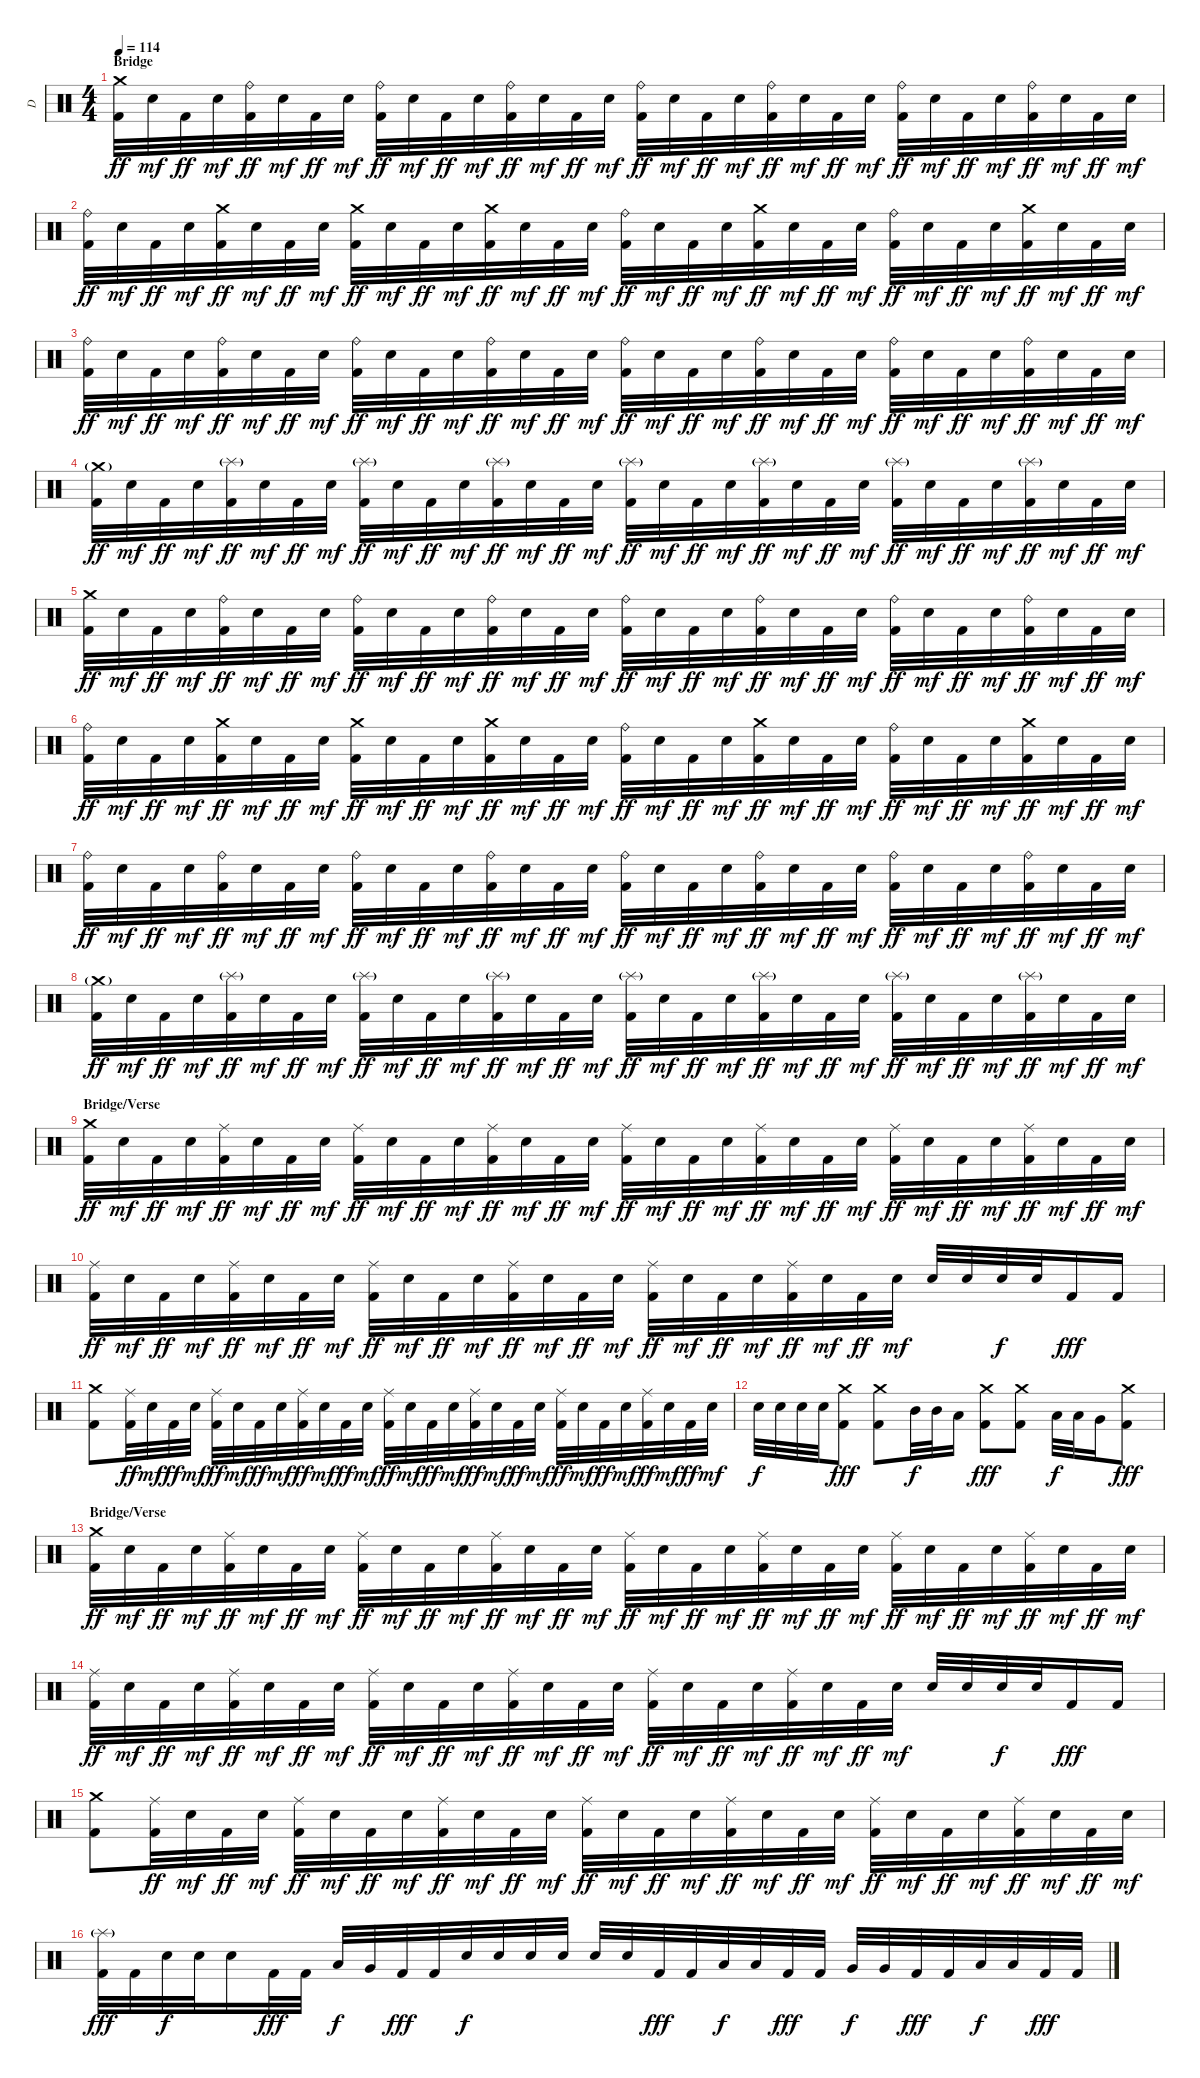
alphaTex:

\track ("D" "D") {instrument percussion}
\staff {score}
\articulation defaults
\ts (4 4)
\section ("" "Bridge")
\tempo 114
\clef neutral
\ks c
("Crash medium (hit)" "Kick (hit) 2").32{dy ff} "Electric Snare (hit)".32{dy mf} "Kick (hit) 2".32{dy ff} "Electric Snare (hit)".32{dy mf} ("Ride (bell)" "Kick (hit) 2").32{dy ff} "Electric Snare (hit)".32{dy mf} "Kick (hit) 2".32{dy ff} "Electric Snare (hit)".32{dy mf} ("Ride (bell)" "Kick (hit) 2").32{dy ff} "Electric Snare (hit)".32{dy mf} "Kick (hit) 2".32{dy ff} "Electric Snare (hit)".32{dy mf} ("Ride (bell)" "Kick (hit) 2").32{dy ff} "Electric Snare (hit)".32{dy mf} "Kick (hit) 2".32{dy ff} "Electric Snare (hit)".32{dy mf} ("Ride (bell)" "Kick (hit) 2").32{dy ff} "Electric Snare (hit)".32{dy mf} "Kick (hit) 2".32{dy ff} "Electric Snare (hit)".32{dy mf} ("Ride (bell)" "Kick (hit) 2").32{dy ff} "Electric Snare (hit)".32{dy mf} "Kick (hit) 2".32{dy ff} "Electric Snare (hit)".32{dy mf} ("Ride (bell)" "Kick (hit) 2").32{dy ff} "Electric Snare (hit)".32{dy mf} "Kick (hit) 2".32{dy ff} "Electric Snare (hit)".32{dy mf} ("Ride (bell)" "Kick (hit) 2").32{dy ff} "Electric Snare (hit)".32{dy mf} "Kick (hit) 2".32{dy ff} "Electric Snare (hit)".32{dy mf} |
("Ride (bell)" "Kick (hit) 2").32{dy ff} "Electric Snare (hit)".32{dy mf} "Kick (hit) 2".32{dy ff} "Electric Snare (hit)".32{dy mf} ("Crash medium (hit)" "Kick (hit) 2").32{dy ff} "Electric Snare (hit)".32{dy mf} "Kick (hit) 2".32{dy ff} "Electric Snare (hit)".32{dy mf} ("Crash medium (hit)" "Kick (hit) 2").32{dy ff} "Electric Snare (hit)".32{dy mf} "Kick (hit) 2".32{dy ff} "Electric Snare (hit)".32{dy mf} ("Crash medium (hit)" "Kick (hit) 2").32{dy ff} "Electric Snare (hit)".32{dy mf} "Kick (hit) 2".32{dy ff} "Electric Snare (hit)".32{dy mf} ("Ride (bell)" "Kick (hit) 2").32{dy ff} "Electric Snare (hit)".32{dy mf} "Kick (hit) 2".32{dy ff} "Electric Snare (hit)".32{dy mf} ("Crash medium (hit)" "Kick (hit) 2").32{dy ff} "Electric Snare (hit)".32{dy mf} "Kick (hit) 2".32{dy ff} "Electric Snare (hit)".32{dy mf} ("Ride (bell)" "Kick (hit) 2").32{dy ff} "Electric Snare (hit)".32{dy mf} "Kick (hit) 2".32{dy ff} "Electric Snare (hit)".32{dy mf} ("Crash medium (hit)" "Kick (hit) 2").32{dy ff} "Electric Snare (hit)".32{dy mf} "Kick (hit) 2".32{dy ff} "Electric Snare (hit)".32{dy mf} |
("Ride (bell)" "Kick (hit) 2").32{dy ff} "Electric Snare (hit)".32{dy mf} "Kick (hit) 2".32{dy ff} "Electric Snare (hit)".32{dy mf} ("Ride (bell)" "Kick (hit) 2").32{dy ff} "Electric Snare (hit)".32{dy mf} "Kick (hit) 2".32{dy ff} "Electric Snare (hit)".32{dy mf} ("Ride (bell)" "Kick (hit) 2").32{dy ff} "Electric Snare (hit)".32{dy mf} "Kick (hit) 2".32{dy ff} "Electric Snare (hit)".32{dy mf} ("Ride (bell)" "Kick (hit) 2").32{dy ff} "Electric Snare (hit)".32{dy mf} "Kick (hit) 2".32{dy ff} "Electric Snare (hit)".32{dy mf} ("Ride (bell)" "Kick (hit) 2").32{dy ff} "Electric Snare (hit)".32{dy mf} "Kick (hit) 2".32{dy ff} "Electric Snare (hit)".32{dy mf} ("Ride (bell)" "Kick (hit) 2").32{dy ff} "Electric Snare (hit)".32{dy mf} "Kick (hit) 2".32{dy ff} "Electric Snare (hit)".32{dy mf} ("Ride (bell)" "Kick (hit) 2").32{dy ff} "Electric Snare (hit)".32{dy mf} "Kick (hit) 2".32{dy ff} "Electric Snare (hit)".32{dy mf} ("Ride (bell)" "Kick (hit) 2").32{dy ff} "Electric Snare (hit)".32{dy mf} "Kick (hit) 2".32{dy ff} "Electric Snare (hit)".32{dy mf} |
("Crash medium (hit)"{g} "Kick (hit) 2").32{dy ff} "Electric Snare (hit)".32{dy mf} "Kick (hit) 2".32{dy ff} "Electric Snare (hit)".32{dy mf} ("Splash (hit)"{g} "Kick (hit) 2").32{dy ff} "Electric Snare (hit)".32{dy mf} "Kick (hit) 2".32{dy ff} "Electric Snare (hit)".32{dy mf} ("Splash (hit)"{g} "Kick (hit) 2").32{dy ff} "Electric Snare (hit)".32{dy mf} "Kick (hit) 2".32{dy ff} "Electric Snare (hit)".32{dy mf} ("Splash (hit)"{g} "Kick (hit) 2").32{dy ff} "Electric Snare (hit)".32{dy mf} "Kick (hit) 2".32{dy ff} "Electric Snare (hit)".32{dy mf} ("Splash (hit)"{g} "Kick (hit) 2").32{dy ff} "Electric Snare (hit)".32{dy mf} "Kick (hit) 2".32{dy ff} "Electric Snare (hit)".32{dy mf} ("Splash (hit)"{g} "Kick (hit) 2").32{dy ff} "Electric Snare (hit)".32{dy mf} "Kick (hit) 2".32{dy ff} "Electric Snare (hit)".32{dy mf} ("Splash (hit)"{g} "Kick (hit) 2").32{dy ff} "Electric Snare (hit)".32{dy mf} "Kick (hit) 2".32{dy ff} "Electric Snare (hit)".32{dy mf} ("Splash (hit)"{g} "Kick (hit) 2").32{dy ff} "Electric Snare (hit)".32{dy mf} "Kick (hit) 2".32{dy ff} "Electric Snare (hit)".32{dy mf} |
("Crash medium (hit)" "Kick (hit) 2").32{dy ff} "Electric Snare (hit)".32{dy mf} "Kick (hit) 2".32{dy ff} "Electric Snare (hit)".32{dy mf} ("Ride (bell)" "Kick (hit) 2").32{dy ff} "Electric Snare (hit)".32{dy mf} "Kick (hit) 2".32{dy ff} "Electric Snare (hit)".32{dy mf} ("Ride (bell)" "Kick (hit) 2").32{dy ff} "Electric Snare (hit)".32{dy mf} "Kick (hit) 2".32{dy ff} "Electric Snare (hit)".32{dy mf} ("Ride (bell)" "Kick (hit) 2").32{dy ff} "Electric Snare (hit)".32{dy mf} "Kick (hit) 2".32{dy ff} "Electric Snare (hit)".32{dy mf} ("Ride (bell)" "Kick (hit) 2").32{dy ff} "Electric Snare (hit)".32{dy mf} "Kick (hit) 2".32{dy ff} "Electric Snare (hit)".32{dy mf} ("Ride (bell)" "Kick (hit) 2").32{dy ff} "Electric Snare (hit)".32{dy mf} "Kick (hit) 2".32{dy ff} "Electric Snare (hit)".32{dy mf} ("Ride (bell)" "Kick (hit) 2").32{dy ff} "Electric Snare (hit)".32{dy mf} "Kick (hit) 2".32{dy ff} "Electric Snare (hit)".32{dy mf} ("Ride (bell)" "Kick (hit) 2").32{dy ff} "Electric Snare (hit)".32{dy mf} "Kick (hit) 2".32{dy ff} "Electric Snare (hit)".32{dy mf} |
("Ride (bell)" "Kick (hit) 2").32{dy ff} "Electric Snare (hit)".32{dy mf} "Kick (hit) 2".32{dy ff} "Electric Snare (hit)".32{dy mf} ("Crash medium (hit)" "Kick (hit) 2").32{dy ff} "Electric Snare (hit)".32{dy mf} "Kick (hit) 2".32{dy ff} "Electric Snare (hit)".32{dy mf} ("Crash medium (hit)" "Kick (hit) 2").32{dy ff} "Electric Snare (hit)".32{dy mf} "Kick (hit) 2".32{dy ff} "Electric Snare (hit)".32{dy mf} ("Crash medium (hit)" "Kick (hit) 2").32{dy ff} "Electric Snare (hit)".32{dy mf} "Kick (hit) 2".32{dy ff} "Electric Snare (hit)".32{dy mf} ("Ride (bell)" "Kick (hit) 2").32{dy ff} "Electric Snare (hit)".32{dy mf} "Kick (hit) 2".32{dy ff} "Electric Snare (hit)".32{dy mf} ("Crash medium (hit)" "Kick (hit) 2").32{dy ff} "Electric Snare (hit)".32{dy mf} "Kick (hit) 2".32{dy ff} "Electric Snare (hit)".32{dy mf} ("Ride (bell)" "Kick (hit) 2").32{dy ff} "Electric Snare (hit)".32{dy mf} "Kick (hit) 2".32{dy ff} "Electric Snare (hit)".32{dy mf} ("Crash medium (hit)" "Kick (hit) 2").32{dy ff} "Electric Snare (hit)".32{dy mf} "Kick (hit) 2".32{dy ff} "Electric Snare (hit)".32{dy mf} |
("Ride (bell)" "Kick (hit) 2").32{dy ff} "Electric Snare (hit)".32{dy mf} "Kick (hit) 2".32{dy ff} "Electric Snare (hit)".32{dy mf} ("Ride (bell)" "Kick (hit) 2").32{dy ff} "Electric Snare (hit)".32{dy mf} "Kick (hit) 2".32{dy ff} "Electric Snare (hit)".32{dy mf} ("Ride (bell)" "Kick (hit) 2").32{dy ff} "Electric Snare (hit)".32{dy mf} "Kick (hit) 2".32{dy ff} "Electric Snare (hit)".32{dy mf} ("Ride (bell)" "Kick (hit) 2").32{dy ff} "Electric Snare (hit)".32{dy mf} "Kick (hit) 2".32{dy ff} "Electric Snare (hit)".32{dy mf} ("Ride (bell)" "Kick (hit) 2").32{dy ff} "Electric Snare (hit)".32{dy mf} "Kick (hit) 2".32{dy ff} "Electric Snare (hit)".32{dy mf} ("Ride (bell)" "Kick (hit) 2").32{dy ff} "Electric Snare (hit)".32{dy mf} "Kick (hit) 2".32{dy ff} "Electric Snare (hit)".32{dy mf} ("Ride (bell)" "Kick (hit) 2").32{dy ff} "Electric Snare (hit)".32{dy mf} "Kick (hit) 2".32{dy ff} "Electric Snare (hit)".32{dy mf} ("Ride (bell)" "Kick (hit) 2").32{dy ff} "Electric Snare (hit)".32{dy mf} "Kick (hit) 2".32{dy ff} "Electric Snare (hit)".32{dy mf} |
("Crash medium (hit)"{g} "Kick (hit) 2").32{dy ff} "Electric Snare (hit)".32{dy mf} "Kick (hit) 2".32{dy ff} "Electric Snare (hit)".32{dy mf} ("Splash (hit)"{g} "Kick (hit) 2").32{dy ff} "Electric Snare (hit)".32{dy mf} "Kick (hit) 2".32{dy ff} "Electric Snare (hit)".32{dy mf} ("Splash (hit)"{g} "Kick (hit) 2").32{dy ff} "Electric Snare (hit)".32{dy mf} "Kick (hit) 2".32{dy ff} "Electric Snare (hit)".32{dy mf} ("Splash (hit)"{g} "Kick (hit) 2").32{dy ff} "Electric Snare (hit)".32{dy mf} "Kick (hit) 2".32{dy ff} "Electric Snare (hit)".32{dy mf} ("Splash (hit)"{g} "Kick (hit) 2").32{dy ff} "Electric Snare (hit)".32{dy mf} "Kick (hit) 2".32{dy ff} "Electric Snare (hit)".32{dy mf} ("Splash (hit)"{g} "Kick (hit) 2").32{dy ff} "Electric Snare (hit)".32{dy mf} "Kick (hit) 2".32{dy ff} "Electric Snare (hit)".32{dy mf} ("Splash (hit)"{g} "Kick (hit) 2").32{dy ff} "Electric Snare (hit)".32{dy mf} "Kick (hit) 2".32{dy ff} "Electric Snare (hit)".32{dy mf} ("Splash (hit)"{g} "Kick (hit) 2").32{dy ff} "Electric Snare (hit)".32{dy mf} "Kick (hit) 2".32{dy ff} "Electric Snare (hit)".32{dy mf} |
\section ("" "Bridge/Verse")
("Crash medium (hit)" "Kick (hit) 2").32{dy ff} "Electric Snare (hit)".32{dy mf} "Kick (hit) 2".32{dy ff} "Electric Snare (hit)".32{dy mf} ("Ride (middle)" "Kick (hit) 2").32{dy ff} "Electric Snare (hit)".32{dy mf} "Kick (hit) 2".32{dy ff} "Electric Snare (hit)".32{dy mf} ("Ride (middle)" "Kick (hit) 2").32{dy ff} "Electric Snare (hit)".32{dy mf} "Kick (hit) 2".32{dy ff} "Electric Snare (hit)".32{dy mf} ("Ride (middle)" "Kick (hit) 2").32{dy ff} "Electric Snare (hit)".32{dy mf} "Kick (hit) 2".32{dy ff} "Electric Snare (hit)".32{dy mf} ("Ride (middle)" "Kick (hit) 2").32{dy ff} "Electric Snare (hit)".32{dy mf} "Kick (hit) 2".32{dy ff} "Electric Snare (hit)".32{dy mf} ("Ride (middle)" "Kick (hit) 2").32{dy ff} "Electric Snare (hit)".32{dy mf} "Kick (hit) 2".32{dy ff} "Electric Snare (hit)".32{dy mf} ("Ride (middle)" "Kick (hit) 2").32{dy ff} "Electric Snare (hit)".32{dy mf} "Kick (hit) 2".32{dy ff} "Electric Snare (hit)".32{dy mf} ("Ride (middle)" "Kick (hit) 2").32{dy ff} "Electric Snare (hit)".32{dy mf} "Kick (hit) 2".32{dy ff} "Electric Snare (hit)".32{dy mf} |
("Ride (middle)" "Kick (hit) 2").32{dy ff} "Electric Snare (hit)".32{dy mf} "Kick (hit) 2".32{dy ff} "Electric Snare (hit)".32{dy mf} ("Ride (middle)" "Kick (hit) 2").32{dy ff} "Electric Snare (hit)".32{dy mf} "Kick (hit) 2".32{dy ff} "Electric Snare (hit)".32{dy mf} ("Ride (middle)" "Kick (hit) 2").32{dy ff} "Electric Snare (hit)".32{dy mf} "Kick (hit) 2".32{dy ff} "Electric Snare (hit)".32{dy mf} ("Ride (middle)" "Kick (hit) 2").32{dy ff} "Electric Snare (hit)".32{dy mf} "Kick (hit) 2".32{dy ff} "Electric Snare (hit)".32{dy mf} ("Ride (middle)" "Kick (hit) 2").32{dy ff} "Electric Snare (hit)".32{dy mf} "Kick (hit) 2".32{dy ff} "Electric Snare (hit)".32{dy mf} ("Ride (middle)" "Kick (hit) 2").32{dy ff} "Electric Snare (hit)".32{dy mf} "Kick (hit) 2".32{dy ff} "Electric Snare (hit)".32{dy mf} "Electric Snare (hit)".32 "Electric Snare (hit)".32 "Electric Snare (hit)".32{dy f} "Electric Snare (hit)".32 "Kick (hit) 2".16{dy fff} "Kick (hit) 2".16 |
("Crash medium (hit)" "Kick (hit) 2").8 ("Ride (middle)" "Kick (hit) 2").32{dy ff} "Electric Snare (hit)".32{dy mf} "Kick (hit) 2".32{dy ff} "Electric Snare (hit)".32{dy mf} ("Ride (middle)" "Kick (hit) 2").32{dy ff} "Electric Snare (hit)".32{dy mf} "Kick (hit) 2".32{dy ff} "Electric Snare (hit)".32{dy mf} ("Ride (middle)" "Kick (hit) 2").32{dy ff} "Electric Snare (hit)".32{dy mf} "Kick (hit) 2".32{dy ff} "Electric Snare (hit)".32{dy mf} ("Ride (middle)" "Kick (hit) 2").32{dy ff} "Electric Snare (hit)".32{dy mf} "Kick (hit) 2".32{dy ff} "Electric Snare (hit)".32{dy mf} ("Ride (middle)" "Kick (hit) 2").32{dy ff} "Electric Snare (hit)".32{dy mf} "Kick (hit) 2".32{dy ff} "Electric Snare (hit)".32{dy mf} ("Ride (middle)" "Kick (hit) 2").32{dy ff} "Electric Snare (hit)".32{dy mf} "Kick (hit) 2".32{dy ff} "Electric Snare (hit)".32{dy mf} ("Ride (middle)" "Kick (hit) 2").32{dy ff} "Electric Snare (hit)".32{dy mf} "Kick (hit) 2".32{dy ff} "Electric Snare (hit)".32{dy mf} |
"Electric Snare (hit)".32{dy f} "Electric Snare (hit)".32 "Electric Snare (hit)".32 "Electric Snare (hit)".32 ("Crash medium (hit)" "Kick (hit) 2").8{dy fff} ("Crash medium (hit)" "Kick (hit) 2").8 "Mid Tom (hit)".32{dy f} "Mid Tom (hit)".32 "Low Tom (hit)".16 ("Crash medium (hit)" "Kick (hit) 2").8{dy fff} ("Crash medium (hit)" "Kick (hit) 2").8 "Low Tom (hit)".32{dy f} "Low Tom (hit)".32 "Very Low Tom (hit)".16 ("Crash medium (hit)" "Kick (hit) 2").8{dy fff} |
\section ("" "Bridge/Verse")
("Crash medium (hit)" "Kick (hit) 2").32{dy ff} "Electric Snare (hit)".32{dy mf} "Kick (hit) 2".32{dy ff} "Electric Snare (hit)".32{dy mf} ("Ride (middle)" "Kick (hit) 2").32{dy ff} "Electric Snare (hit)".32{dy mf} "Kick (hit) 2".32{dy ff} "Electric Snare (hit)".32{dy mf} ("Ride (middle)" "Kick (hit) 2").32{dy ff} "Electric Snare (hit)".32{dy mf} "Kick (hit) 2".32{dy ff} "Electric Snare (hit)".32{dy mf} ("Ride (middle)" "Kick (hit) 2").32{dy ff} "Electric Snare (hit)".32{dy mf} "Kick (hit) 2".32{dy ff} "Electric Snare (hit)".32{dy mf} ("Ride (middle)" "Kick (hit) 2").32{dy ff} "Electric Snare (hit)".32{dy mf} "Kick (hit) 2".32{dy ff} "Electric Snare (hit)".32{dy mf} ("Ride (middle)" "Kick (hit) 2").32{dy ff} "Electric Snare (hit)".32{dy mf} "Kick (hit) 2".32{dy ff} "Electric Snare (hit)".32{dy mf} ("Ride (middle)" "Kick (hit) 2").32{dy ff} "Electric Snare (hit)".32{dy mf} "Kick (hit) 2".32{dy ff} "Electric Snare (hit)".32{dy mf} ("Ride (middle)" "Kick (hit) 2").32{dy ff} "Electric Snare (hit)".32{dy mf} "Kick (hit) 2".32{dy ff} "Electric Snare (hit)".32{dy mf} |
("Ride (middle)" "Kick (hit) 2").32{dy ff} "Electric Snare (hit)".32{dy mf} "Kick (hit) 2".32{dy ff} "Electric Snare (hit)".32{dy mf} ("Ride (middle)" "Kick (hit) 2").32{dy ff} "Electric Snare (hit)".32{dy mf} "Kick (hit) 2".32{dy ff} "Electric Snare (hit)".32{dy mf} ("Ride (middle)" "Kick (hit) 2").32{dy ff} "Electric Snare (hit)".32{dy mf} "Kick (hit) 2".32{dy ff} "Electric Snare (hit)".32{dy mf} ("Ride (middle)" "Kick (hit) 2").32{dy ff} "Electric Snare (hit)".32{dy mf} "Kick (hit) 2".32{dy ff} "Electric Snare (hit)".32{dy mf} ("Ride (middle)" "Kick (hit) 2").32{dy ff} "Electric Snare (hit)".32{dy mf} "Kick (hit) 2".32{dy ff} "Electric Snare (hit)".32{dy mf} ("Ride (middle)" "Kick (hit) 2").32{dy ff} "Electric Snare (hit)".32{dy mf} "Kick (hit) 2".32{dy ff} "Electric Snare (hit)".32{dy mf} "Electric Snare (hit)".32 "Electric Snare (hit)".32 "Electric Snare (hit)".32{dy f} "Electric Snare (hit)".32 "Kick (hit) 2".16{dy fff} "Kick (hit) 2".16 |
("Crash medium (hit)" "Kick (hit) 2").8 ("Ride (middle)" "Kick (hit) 2").32{dy ff} "Electric Snare (hit)".32{dy mf} "Kick (hit) 2".32{dy ff} "Electric Snare (hit)".32{dy mf} ("Ride (middle)" "Kick (hit) 2").32{dy ff} "Electric Snare (hit)".32{dy mf} "Kick (hit) 2".32{dy ff} "Electric Snare (hit)".32{dy mf} ("Ride (middle)" "Kick (hit) 2").32{dy ff} "Electric Snare (hit)".32{dy mf} "Kick (hit) 2".32{dy ff} "Electric Snare (hit)".32{dy mf} ("Ride (middle)" "Kick (hit) 2").32{dy ff} "Electric Snare (hit)".32{dy mf} "Kick (hit) 2".32{dy ff} "Electric Snare (hit)".32{dy mf} ("Ride (middle)" "Kick (hit) 2").32{dy ff} "Electric Snare (hit)".32{dy mf} "Kick (hit) 2".32{dy ff} "Electric Snare (hit)".32{dy mf} ("Ride (middle)" "Kick (hit) 2").32{dy ff} "Electric Snare (hit)".32{dy mf} "Kick (hit) 2".32{dy ff} "Electric Snare (hit)".32{dy mf} ("Ride (middle)" "Kick (hit) 2").32{dy ff} "Electric Snare (hit)".32{dy mf} "Kick (hit) 2".32{dy ff} "Electric Snare (hit)".32{dy mf} |
("Splash (hit)"{g} "Kick (hit) 2").32{dy fff} "Kick (hit) 2".32 "Electric Snare (hit)".32{dy f} "Electric Snare (hit)".32 "Electric Snare (hit)".16 "Kick (hit) 2".32{dy fff} "Kick (hit) 2".32 "Low Tom (hit)".32{dy f} "Very Low Tom (hit)".32 "Kick (hit) 2".32{dy fff} "Kick (hit) 2".32 "Electric Snare (hit)".32{dy f} "Electric Snare (hit)".32 "Electric Snare (hit)".32 "Electric Snare (hit)".32 "Electric Snare (hit)".32 "Electric Snare (hit)".32 "Kick (hit) 2".32{dy fff} "Kick (hit) 2".32 "Low Tom (hit)".32{dy f} "Low Tom (hit)".32 "Kick (hit) 2".32{dy fff} "Kick (hit) 2".32 "Very Low Tom (hit)".32{dy f} "Very Low Tom (hit)".32 "Kick (hit) 2".32{dy fff} "Kick (hit) 2".32 "Low Floor Tom (hit)".32{dy f} "Low Floor Tom (hit)".32 "Kick (hit) 2".32{dy fff} "Kick (hit) 2".32
